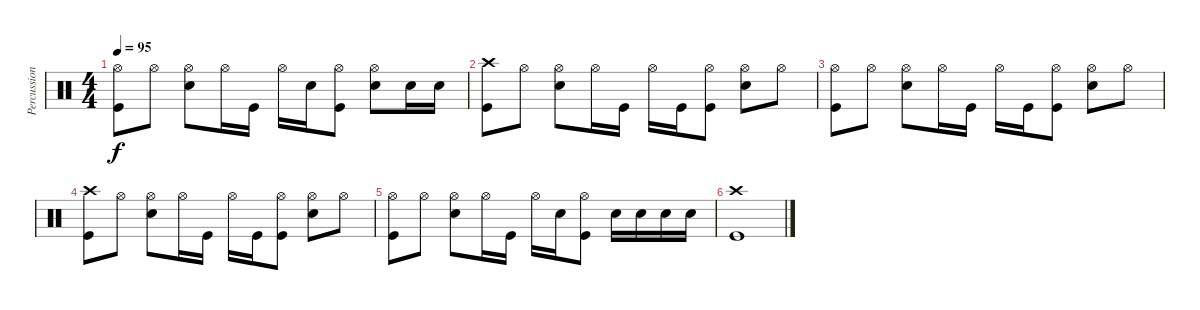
\track ("Percussion" "Percussion") {instrument percussion}
\staff {score}
\articulation defaults
\ts (4 4)
\tempo 95
\clef neutral
\ks c
("Hi-Hat (open)" "Kick (hit)").8{dy f} "Hi-Hat (open)".8 ("Hi-Hat (open)" "Snare (hit) 2").8 "Hi-Hat (open)".16 "Kick (hit)".16 "Hi-Hat (open)".16 "Snare (hit) 2".16 ("Hi-Hat (open)" "Kick (hit)").8 ("Hi-Hat (open)" "Snare (hit) 2").8 "Snare (hit) 2".16 "Snare (hit) 2".16 |
("Crash high (hit)" "Kick (hit)").8 "Hi-Hat (open)".8 ("Hi-Hat (open)" "Snare (hit) 2").8 "Hi-Hat (open)".16 "Kick (hit)".16 "Hi-Hat (open)".16 "Kick (hit)".16 ("Hi-Hat (open)" "Kick (hit)").8 ("Hi-Hat (open)" "Snare (hit) 2").8 "Hi-Hat (open)".8 |
("Hi-Hat (open)" "Kick (hit)").8 "Hi-Hat (open)".8 ("Hi-Hat (open)" "Snare (hit) 2").8 "Hi-Hat (open)".16 "Kick (hit)".16 "Hi-Hat (open)".16 "Kick (hit)".16 ("Hi-Hat (open)" "Kick (hit)").8 ("Hi-Hat (open)" "Snare (hit) 2").8 "Hi-Hat (open)".8 |
("Crash high (hit)" "Kick (hit)").8 "Hi-Hat (open)".8 ("Hi-Hat (open)" "Snare (hit) 2").8 "Hi-Hat (open)".16 "Kick (hit)".16 "Hi-Hat (open)".16 "Kick (hit)".16 ("Hi-Hat (open)" "Kick (hit)").8 ("Hi-Hat (open)" "Snare (hit) 2").8 "Hi-Hat (open)".8 |
("Hi-Hat (open)" "Kick (hit)").8 "Hi-Hat (open)".8 ("Hi-Hat (open)" "Snare (hit) 2").8 "Hi-Hat (open)".16 "Kick (hit)".16 "Hi-Hat (open)".16 "Snare (hit) 2".16 ("Hi-Hat (open)" "Kick (hit)").8 "Snare (hit) 2".16 "Snare (hit) 2".16 "Snare (hit) 2".16 "Snare (hit) 2".16 |
("Crash high (hit)" "Kick (hit)").1
